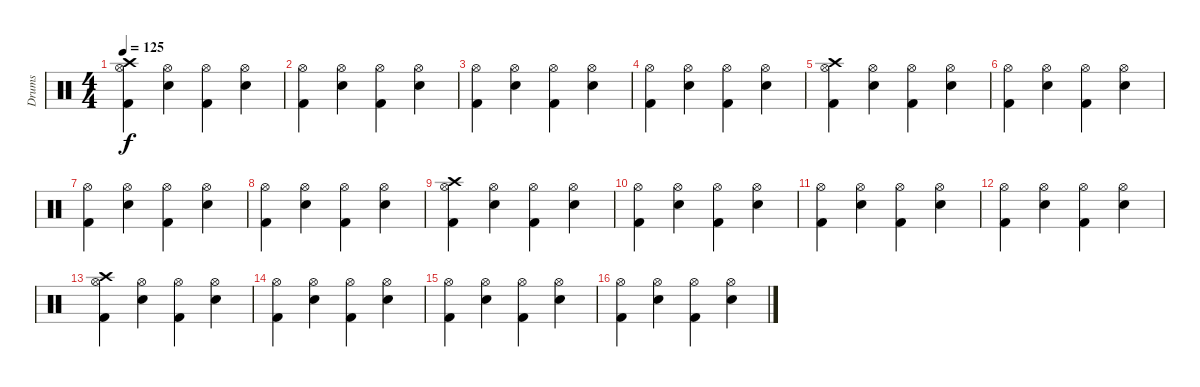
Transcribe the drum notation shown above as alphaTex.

\track ("Drums" "Drums") {instrument percussion}
\staff {score}
\articulation defaults
\ts (4 4)
\tempo 125
\clef neutral
\ks c
("Hi-Hat (open)" "Crash high (hit)" "Kick (hit) 2").4{dy f} ("Hi-Hat (open)" "Snare (hit) 2").4 ("Hi-Hat (open)" "Kick (hit) 2").4 ("Hi-Hat (open)" "Snare (hit) 2").4 |
("Hi-Hat (open)" "Kick (hit) 2").4 ("Hi-Hat (open)" "Snare (hit) 2").4 ("Hi-Hat (open)" "Kick (hit) 2").4 ("Hi-Hat (open)" "Snare (hit) 2").4 |
("Hi-Hat (open)" "Kick (hit) 2").4 ("Hi-Hat (open)" "Snare (hit) 2").4 ("Hi-Hat (open)" "Kick (hit) 2").4 ("Hi-Hat (open)" "Snare (hit) 2").4 |
("Hi-Hat (open)" "Kick (hit) 2").4 ("Hi-Hat (open)" "Snare (hit) 2").4 ("Hi-Hat (open)" "Kick (hit) 2").4 ("Hi-Hat (open)" "Snare (hit) 2").4 |
("Hi-Hat (open)" "Crash high (hit)" "Kick (hit) 2").4 ("Hi-Hat (open)" "Snare (hit) 2").4 ("Hi-Hat (open)" "Kick (hit) 2").4 ("Hi-Hat (open)" "Snare (hit) 2").4 |
("Hi-Hat (open)" "Kick (hit) 2").4 ("Hi-Hat (open)" "Snare (hit) 2").4 ("Hi-Hat (open)" "Kick (hit) 2").4 ("Hi-Hat (open)" "Snare (hit) 2").4 |
("Hi-Hat (open)" "Kick (hit) 2").4 ("Hi-Hat (open)" "Snare (hit) 2").4 ("Hi-Hat (open)" "Kick (hit) 2").4 ("Hi-Hat (open)" "Snare (hit) 2").4 |
("Hi-Hat (open)" "Kick (hit) 2").4 ("Hi-Hat (open)" "Snare (hit) 2").4 ("Hi-Hat (open)" "Kick (hit) 2").4 ("Hi-Hat (open)" "Snare (hit) 2").4 |
("Hi-Hat (open)" "Crash high (hit)" "Kick (hit) 2").4 ("Hi-Hat (open)" "Snare (hit) 2").4 ("Hi-Hat (open)" "Kick (hit) 2").4 ("Hi-Hat (open)" "Snare (hit) 2").4 |
("Hi-Hat (open)" "Kick (hit) 2").4 ("Hi-Hat (open)" "Snare (hit) 2").4 ("Hi-Hat (open)" "Kick (hit) 2").4 ("Hi-Hat (open)" "Snare (hit) 2").4 |
("Hi-Hat (open)" "Kick (hit) 2").4 ("Hi-Hat (open)" "Snare (hit) 2").4 ("Hi-Hat (open)" "Kick (hit) 2").4 ("Hi-Hat (open)" "Snare (hit) 2").4 |
("Hi-Hat (open)" "Kick (hit) 2").4 ("Hi-Hat (open)" "Snare (hit) 2").4 ("Hi-Hat (open)" "Kick (hit) 2").4 ("Hi-Hat (open)" "Snare (hit) 2").4 |
("Hi-Hat (open)" "Crash high (hit)" "Kick (hit) 2").4 ("Hi-Hat (open)" "Snare (hit) 2").4 ("Hi-Hat (open)" "Kick (hit) 2").4 ("Hi-Hat (open)" "Snare (hit) 2").4 |
("Hi-Hat (open)" "Kick (hit) 2").4 ("Hi-Hat (open)" "Snare (hit) 2").4 ("Hi-Hat (open)" "Kick (hit) 2").4 ("Hi-Hat (open)" "Snare (hit) 2").4 |
("Hi-Hat (open)" "Kick (hit) 2").4 ("Hi-Hat (open)" "Snare (hit) 2").4 ("Hi-Hat (open)" "Kick (hit) 2").4 ("Hi-Hat (open)" "Snare (hit) 2").4 |
("Hi-Hat (open)" "Kick (hit) 2").4 ("Hi-Hat (open)" "Snare (hit) 2").4 ("Hi-Hat (open)" "Kick (hit) 2").4 ("Hi-Hat (open)" "Snare (hit) 2").4
